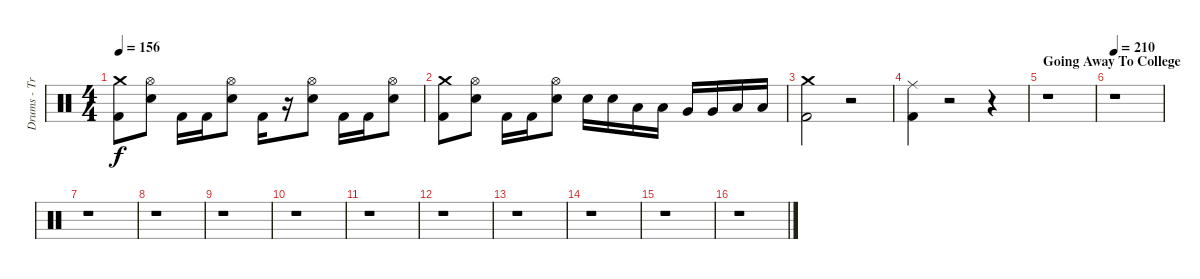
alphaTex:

\track ("Drums - Travis Barker" "Drums - Tr") {instrument percussion}
\staff {score}
\articulation defaults
\ts (4 4)
\tempo 156
\clef neutral
\ks c
("Crash medium (hit)" "Kick (hit) 2").8{dy f} ("Hi-Hat (open)" "Electric Snare (hit)").8 "Kick (hit) 2".16 "Kick (hit) 2".16 ("Hi-Hat (open)" "Electric Snare (hit)").8 "Kick (hit) 2".16 r.16 ("Hi-Hat (open)" "Electric Snare (hit)").8 "Kick (hit) 2".16 "Kick (hit) 2".16 ("Hi-Hat (open)" "Electric Snare (hit)").8 |
("Crash medium (hit)" "Kick (hit) 2").8 ("Hi-Hat (open)" "Electric Snare (hit)").8 "Kick (hit) 2".16 "Kick (hit) 2".16 ("Hi-Hat (open)" "Electric Snare (hit)").8 "Electric Snare (hit)".16 "Electric Snare (hit)".16 "Low Tom (hit)".16 "Low Tom (hit)".16 "Very Low Tom (hit)".16 "Very Low Tom (hit)".16 "Low Floor Tom (hit)".16 "Low Floor Tom (hit)".16 |
("Crash medium (hit)" "Kick (hit) 2").2 r.2 |
("Ride (middle)" "Kick (hit) 2").4 r.2 r.4 |
\section ("" "Going Away To College")
r.1 |
\tempo 210
r.1 |
r.1 |
r.1 |
r.1 |
r.1 |
r.1 |
r.1 |
r.1 |
r.1 |
r.1 |
r.1
